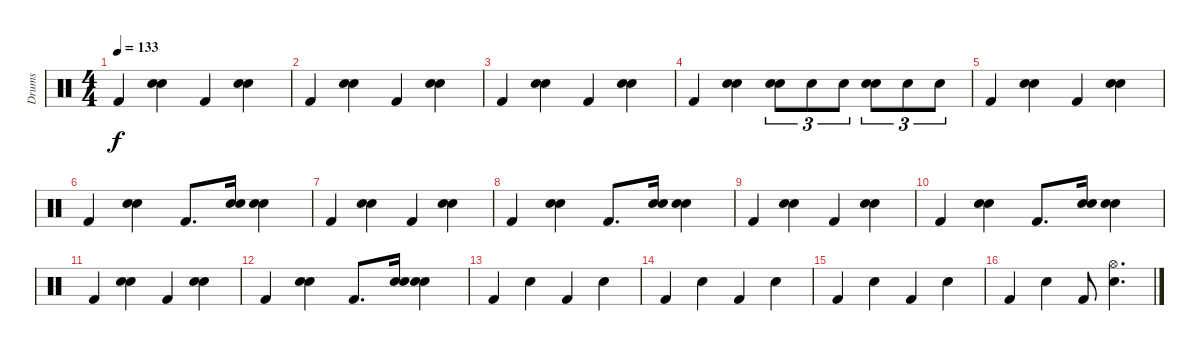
\track ("Drums" "Drums") {instrument percussion}
\staff {score}
\articulation defaults
\ts (4 4)
\tempo 133
\clef neutral
\ks c "Kick (hit) 2".4{dy f}
("Electric Snare (hit)" "Hand Clap (hit)").4 "Kick (hit) 2".4 ("Electric Snare (hit)" "Hand Clap (hit)").4 |
"Kick (hit) 2".4 ("Electric Snare (hit)" "Hand Clap (hit)").4 "Kick (hit) 2".4 ("Electric Snare (hit)" "Hand Clap (hit)").4 |
"Kick (hit) 2".4 ("Electric Snare (hit)" "Hand Clap (hit)").4 "Kick (hit) 2".4 ("Electric Snare (hit)" "Hand Clap (hit)").4 |
"Kick (hit) 2".4 ("Electric Snare (hit)" "Hand Clap (hit)").4 ("Hand Clap (hit)" "Electric Snare (hit)").8{tu (3 2)} "Electric Snare (hit)".8{tu (3 2)} "Electric Snare (hit)".8{tu (3 2)} ("Hand Clap (hit)" "Electric Snare (hit)").8{tu (3 2)} "Electric Snare (hit)".8{tu (3 2)} "Electric Snare (hit)".8{tu (3 2)} |
"Kick (hit) 2".4 ("Electric Snare (hit)" "Hand Clap (hit)").4 "Kick (hit) 2".4 ("Electric Snare (hit)" "Hand Clap (hit)").4 |
"Kick (hit) 2".4 ("Electric Snare (hit)" "Hand Clap (hit)").4 "Kick (hit) 2".8{d} ("Electric Snare (hit)" "Hand Clap (hit)").16 ("Electric Snare (hit)" "Hand Clap (hit)").4 |
"Kick (hit) 2".4 ("Electric Snare (hit)" "Hand Clap (hit)").4 "Kick (hit) 2".4 ("Electric Snare (hit)" "Hand Clap (hit)").4 |
"Kick (hit) 2".4 ("Electric Snare (hit)" "Hand Clap (hit)").4 "Kick (hit) 2".8{d} ("Electric Snare (hit)" "Hand Clap (hit)").16 ("Electric Snare (hit)" "Hand Clap (hit)").4 |
"Kick (hit) 2".4 ("Electric Snare (hit)" "Hand Clap (hit)").4 "Kick (hit) 2".4 ("Electric Snare (hit)" "Hand Clap (hit)").4 |
"Kick (hit) 2".4 ("Electric Snare (hit)" "Hand Clap (hit)").4 "Kick (hit) 2".8{d} ("Electric Snare (hit)" "Hand Clap (hit)").16 ("Electric Snare (hit)" "Hand Clap (hit)").4 |
"Kick (hit) 2".4 ("Electric Snare (hit)" "Hand Clap (hit)").4 "Kick (hit) 2".4 ("Electric Snare (hit)" "Hand Clap (hit)").4 |
"Kick (hit) 2".4 ("Electric Snare (hit)" "Hand Clap (hit)").4 "Kick (hit) 2".8{d} ("Electric Snare (hit)" "Hand Clap (hit)").16 ("Electric Snare (hit)" "Hand Clap (hit)").4 |
"Kick (hit) 2".4 "Hand Clap (hit)".4 "Kick (hit) 2".4 "Hand Clap (hit)".4 |
"Kick (hit) 2".4 "Hand Clap (hit)".4 "Kick (hit) 2".4 "Hand Clap (hit)".4 |
"Kick (hit) 2".4 "Hand Clap (hit)".4 "Kick (hit) 2".4 "Hand Clap (hit)".4 |
"Kick (hit) 2".4 "Hand Clap (hit)".4 "Kick (hit) 2".8 ("Electric Snare (hit)" "Hi-Hat (open)").4{d}
